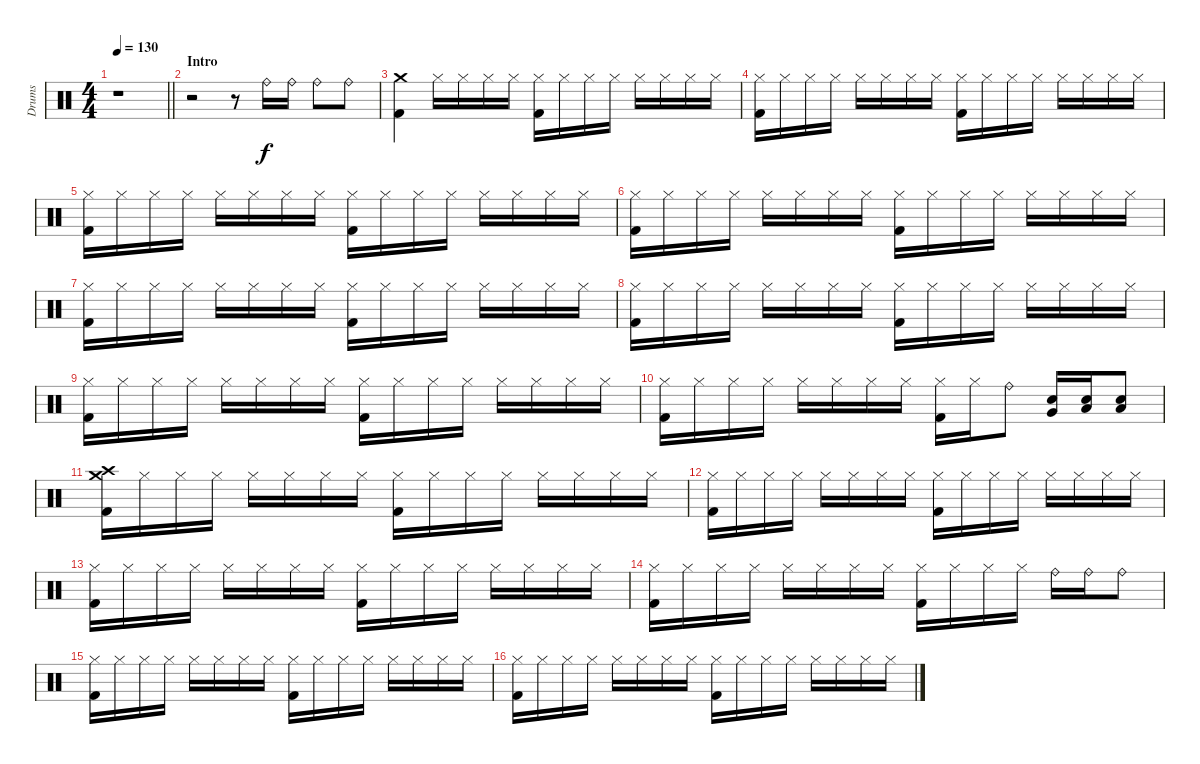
\track ("Drums" "Drums") {instrument percussion}
\staff {score}
\articulation defaults
\ts (4 4)
\tempo 130
\clef neutral
\barLineRight lightlight
\ks c
r.1{dy f} |
\section ("" "Intro")
r.2 r.8 "Ride (bell)".16 "Ride (bell)".16 "Ride (bell)".8 "Ride (bell)".8 |
("Kick (hit) 2" "Crash medium (hit)").4 "Hi-Hat (closed)".16 "Hi-Hat (closed)".16 "Hi-Hat (closed)".16 "Hi-Hat (closed)".16 ("Hi-Hat (closed)" "Kick (hit) 2").16 "Hi-Hat (closed)".16 "Hi-Hat (closed)".16 "Hi-Hat (closed)".16 "Hi-Hat (closed)".16 "Hi-Hat (closed)".16 "Hi-Hat (closed)".16 "Hi-Hat (closed)".16 |
("Hi-Hat (closed)" "Kick (hit) 2").16 "Hi-Hat (closed)".16 "Hi-Hat (closed)".16 "Hi-Hat (closed)".16 "Hi-Hat (closed)".16 "Hi-Hat (closed)".16 "Hi-Hat (closed)".16 "Hi-Hat (closed)".16 ("Hi-Hat (closed)" "Kick (hit) 2").16 "Hi-Hat (closed)".16 "Hi-Hat (closed)".16 "Hi-Hat (closed)".16 "Hi-Hat (closed)".16 "Hi-Hat (closed)".16 "Hi-Hat (closed)".16 "Hi-Hat (closed)".16 |
("Hi-Hat (closed)" "Kick (hit) 2").16 "Hi-Hat (closed)".16 "Hi-Hat (closed)".16 "Hi-Hat (closed)".16 "Hi-Hat (closed)".16 "Hi-Hat (closed)".16 "Hi-Hat (closed)".16 "Hi-Hat (closed)".16 ("Hi-Hat (closed)" "Kick (hit) 2").16 "Hi-Hat (closed)".16 "Hi-Hat (closed)".16 "Hi-Hat (closed)".16 "Hi-Hat (closed)".16 "Hi-Hat (closed)".16 "Hi-Hat (closed)".16 "Hi-Hat (closed)".16 |
("Hi-Hat (closed)" "Kick (hit) 2").16 "Hi-Hat (closed)".16 "Hi-Hat (closed)".16 "Hi-Hat (closed)".16 "Hi-Hat (closed)".16 "Hi-Hat (closed)".16 "Hi-Hat (closed)".16 "Hi-Hat (closed)".16 ("Hi-Hat (closed)" "Kick (hit) 2").16 "Hi-Hat (closed)".16 "Hi-Hat (closed)".16 "Hi-Hat (closed)".16 "Hi-Hat (closed)".16 "Hi-Hat (closed)".16 "Hi-Hat (closed)".16 "Hi-Hat (closed)".16 |
("Hi-Hat (closed)" "Kick (hit) 2").16 "Hi-Hat (closed)".16 "Hi-Hat (closed)".16 "Hi-Hat (closed)".16 "Hi-Hat (closed)".16 "Hi-Hat (closed)".16 "Hi-Hat (closed)".16 "Hi-Hat (closed)".16 ("Hi-Hat (closed)" "Kick (hit) 2").16 "Hi-Hat (closed)".16 "Hi-Hat (closed)".16 "Hi-Hat (closed)".16 "Hi-Hat (closed)".16 "Hi-Hat (closed)".16 "Hi-Hat (closed)".16 "Hi-Hat (closed)".16 |
("Hi-Hat (closed)" "Kick (hit) 2").16 "Hi-Hat (closed)".16 "Hi-Hat (closed)".16 "Hi-Hat (closed)".16 "Hi-Hat (closed)".16 "Hi-Hat (closed)".16 "Hi-Hat (closed)".16 "Hi-Hat (closed)".16 ("Hi-Hat (closed)" "Kick (hit) 2").16 "Hi-Hat (closed)".16 "Hi-Hat (closed)".16 "Hi-Hat (closed)".16 "Hi-Hat (closed)".16 "Hi-Hat (closed)".16 "Hi-Hat (closed)".16 "Hi-Hat (closed)".16 |
("Hi-Hat (closed)" "Kick (hit) 2").16 "Hi-Hat (closed)".16 "Hi-Hat (closed)".16 "Hi-Hat (closed)".16 "Hi-Hat (closed)".16 "Hi-Hat (closed)".16 "Hi-Hat (closed)".16 "Hi-Hat (closed)".16 ("Hi-Hat (closed)" "Kick (hit) 2").16 "Hi-Hat (closed)".16 "Hi-Hat (closed)".16 "Hi-Hat (closed)".16 "Hi-Hat (closed)".16 "Hi-Hat (closed)".16 "Hi-Hat (closed)".16 "Hi-Hat (closed)".16 |
("Hi-Hat (closed)" "Kick (hit) 2").16 "Hi-Hat (closed)".16 "Hi-Hat (closed)".16 "Hi-Hat (closed)".16 "Hi-Hat (closed)".16 "Hi-Hat (closed)".16 "Hi-Hat (closed)".16 "Hi-Hat (closed)".16 ("Hi-Hat (closed)" "Kick (hit) 2").16 "Hi-Hat (closed)".16 "Ride (bell)".8 ("Snare (hit) 2" "Very Low Tom (hit)").16 ("Snare (hit) 2" "Low Tom (hit)").16 ("Snare (hit) 2" "Low Tom (hit)").8 |
("Kick (hit) 2" "Crash medium (hit)" "Crash high (hit)").16 "Hi-Hat (closed)".16 "Hi-Hat (closed)".16 "Hi-Hat (closed)".16 "Hi-Hat (closed)".16 "Hi-Hat (closed)".16 "Hi-Hat (closed)".16 "Hi-Hat (closed)".16 ("Hi-Hat (closed)" "Kick (hit) 2").16 "Hi-Hat (closed)".16 "Hi-Hat (closed)".16 "Hi-Hat (closed)".16 "Hi-Hat (closed)".16 "Hi-Hat (closed)".16 "Hi-Hat (closed)".16 "Hi-Hat (closed)".16 |
("Hi-Hat (closed)" "Kick (hit) 2").16 "Hi-Hat (closed)".16 "Hi-Hat (closed)".16 "Hi-Hat (closed)".16 "Hi-Hat (closed)".16 "Hi-Hat (closed)".16 "Hi-Hat (closed)".16 "Hi-Hat (closed)".16 ("Hi-Hat (closed)" "Kick (hit) 2").16 "Hi-Hat (closed)".16 "Hi-Hat (closed)".16 "Hi-Hat (closed)".16 "Hi-Hat (closed)".16 "Hi-Hat (closed)".16 "Hi-Hat (closed)".16 "Hi-Hat (closed)".16 |
("Hi-Hat (closed)" "Kick (hit) 2").16 "Hi-Hat (closed)".16 "Hi-Hat (closed)".16 "Hi-Hat (closed)".16 "Hi-Hat (closed)".16 "Hi-Hat (closed)".16 "Hi-Hat (closed)".16 "Hi-Hat (closed)".16 ("Hi-Hat (closed)" "Kick (hit) 2").16 "Hi-Hat (closed)".16 "Hi-Hat (closed)".16 "Hi-Hat (closed)".16 "Hi-Hat (closed)".16 "Hi-Hat (closed)".16 "Hi-Hat (closed)".16 "Hi-Hat (closed)".16 |
("Hi-Hat (closed)" "Kick (hit) 2").16 "Hi-Hat (closed)".16 "Hi-Hat (closed)".16 "Hi-Hat (closed)".16 "Hi-Hat (closed)".16 "Hi-Hat (closed)".16 "Hi-Hat (closed)".16 "Hi-Hat (closed)".16 ("Hi-Hat (closed)" "Kick (hit) 2").16 "Hi-Hat (closed)".16 "Hi-Hat (closed)".16 "Hi-Hat (closed)".16 "Ride (bell)".16 "Ride (bell)".16 "Ride (bell)".8 |
("Hi-Hat (closed)" "Kick (hit) 2").16 "Hi-Hat (closed)".16 "Hi-Hat (closed)".16 "Hi-Hat (closed)".16 "Hi-Hat (closed)".16 "Hi-Hat (closed)".16 "Hi-Hat (closed)".16 "Hi-Hat (closed)".16 ("Hi-Hat (closed)" "Kick (hit) 2").16 "Hi-Hat (closed)".16 "Hi-Hat (closed)".16 "Hi-Hat (closed)".16 "Hi-Hat (closed)".16 "Hi-Hat (closed)".16 "Hi-Hat (closed)".16 "Hi-Hat (closed)".16 |
("Hi-Hat (closed)" "Kick (hit) 2").16 "Hi-Hat (closed)".16 "Hi-Hat (closed)".16 "Hi-Hat (closed)".16 "Hi-Hat (closed)".16 "Hi-Hat (closed)".16 "Hi-Hat (closed)".16 "Hi-Hat (closed)".16 ("Hi-Hat (closed)" "Kick (hit) 2").16 "Hi-Hat (closed)".16 "Hi-Hat (closed)".16 "Hi-Hat (closed)".16 "Hi-Hat (closed)".16 "Hi-Hat (closed)".16 "Hi-Hat (closed)".16 "Hi-Hat (closed)".16
